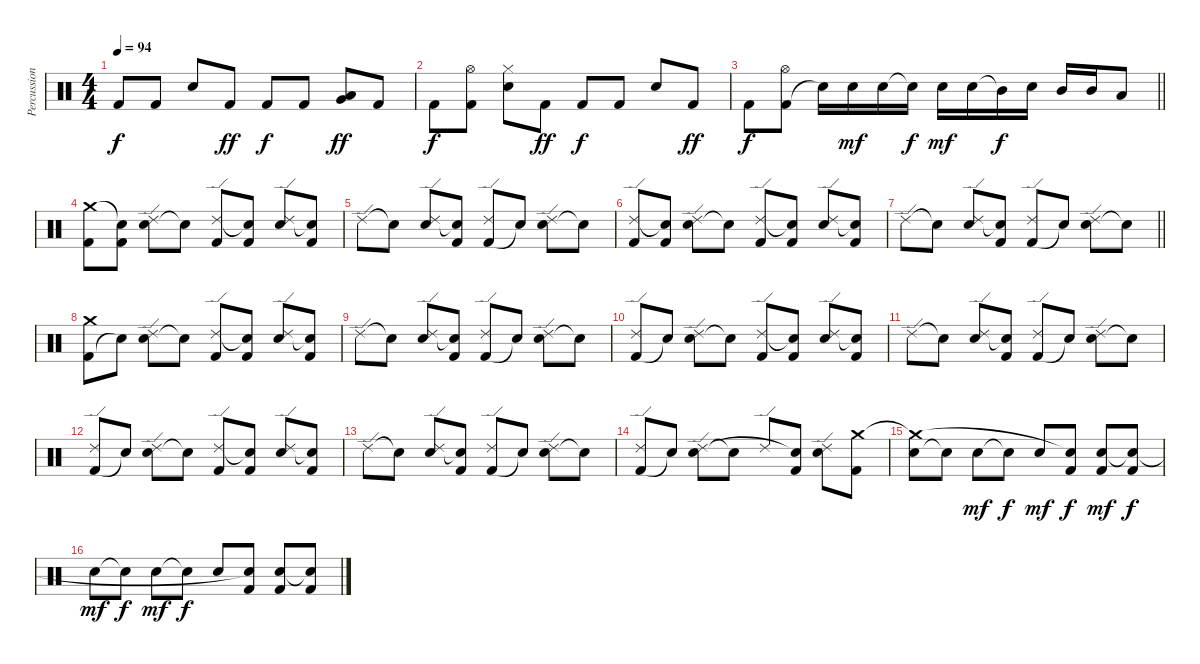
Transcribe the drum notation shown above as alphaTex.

\track ("Percussion" "Percussion") {instrument percussion}
\staff {score}
\articulation defaults
\ts (4 4)
\tempo 94
\clef neutral
\ks c "Kick (hit) 2".8{dy f} "Kick (hit) 2".8 "Electric Snare (hit)".8 "Kick (hit) 2".8{dy ff} "Kick (hit) 2".8{dy f} "Kick (hit) 2".8
("Low Tom (hit)" "Very Low Tom (hit)").8{dy ff} "Kick (hit) 2".8 |
"Kick (hit) 2".8{dy f} ("Kick (hit) 2" "Hi-Hat (open)").8 ("Electric Snare (hit)" "Hi-Hat (closed)").8 "Kick (hit) 2".8{dy ff} "Kick (hit) 2".8{dy f} "Kick (hit) 2".8 "Electric Snare (hit)".8 "Kick (hit) 2".8{dy ff} |
\barLineRight lightlight "Kick (hit) 2".8{dy f}
("Kick (hit) 2" "Hi-Hat (open)").8 "Snare (hit)"{t}.16 "Electric Snare (hit)".16{dy mf} "Electric Snare (hit)".16 "Electric Snare (hit)"{t}.16{dy f} "Electric Snare (hit)".16{dy mf} "Electric Snare (hit)".16 "Mid Tom (hit)"{t}.16{dy f} "Electric Snare (hit)".16 "Mid Tom (hit)".16 "Mid Tom (hit)".16 "Low Tom (hit)".8 |
("Kick (hit) 2" "Crash medium (hit)").8 ("Kick (hit) 2" "Snare (hit)"{t}).8 ("Electric Snare (hit)" "Ride (edge) 2").8 "Snare (hit)"{t}.8 ("Kick (hit) 2" "Ride (edge) 2").8 ("Kick (hit) 2" "Snare (hit)"{t}).8 ("Electric Snare (hit)" "Ride (edge) 2").8 ("Kick (hit) 2" "Snare (hit)"{t}).8 |
"Ride (edge) 2".8 "Snare (hit)"{t}.8 ("Electric Snare (hit)" "Ride (edge) 2").8 ("Kick (hit) 2" "Snare (hit)"{t}).8 ("Kick (hit) 2" "Ride (edge) 2").8 "Snare (hit)"{t}.8 ("Electric Snare (hit)" "Ride (edge) 2").8 "Snare (hit)"{t}.8 |
("Kick (hit) 2" "Ride (edge) 2").8 ("Kick (hit) 2" "Snare (hit)"{t}).8 ("Electric Snare (hit)" "Ride (edge) 2").8 "Snare (hit)"{t}.8 ("Kick (hit) 2" "Ride (edge) 2").8 ("Kick (hit) 2" "Snare (hit)"{t}).8 ("Electric Snare (hit)" "Ride (edge) 2").8 ("Kick (hit) 2" "Snare (hit)"{t}).8 |
\barLineRight lightlight "Ride (edge) 2".8 "Snare (hit)"{t}.8
("Electric Snare (hit)" "Ride (edge) 2").8 ("Kick (hit) 2" "Snare (hit)"{t}).8 ("Kick (hit) 2" "Ride (edge) 2").8 "Snare (hit)"{t}.8 ("Electric Snare (hit)" "Ride (edge) 2").8 "Snare (hit)"{t}.8 |
("Kick (hit) 2" "Crash medium (hit)").8 "Snare (hit)"{t}.8 ("Electric Snare (hit)" "Ride (edge) 2").8 "Snare (hit)"{t}.8 ("Kick (hit) 2" "Ride (edge) 2").8 ("Kick (hit) 2" "Snare (hit)"{t}).8 ("Electric Snare (hit)" "Ride (edge) 2").8 ("Kick (hit) 2" "Snare (hit)"{t}).8 |
"Ride (edge) 2".8 "Snare (hit)"{t}.8 ("Electric Snare (hit)" "Ride (edge) 2").8 ("Kick (hit) 2" "Snare (hit)"{t}).8 ("Kick (hit) 2" "Ride (edge) 2").8 "Snare (hit)"{t}.8 ("Electric Snare (hit)" "Ride (edge) 2").8 "Snare (hit)"{t}.8 |
("Kick (hit) 2" "Ride (edge) 2").8 "Snare (hit)"{t}.8 ("Electric Snare (hit)" "Ride (edge) 2").8 "Snare (hit)"{t}.8 ("Kick (hit) 2" "Ride (edge) 2").8 ("Kick (hit) 2" "Snare (hit)"{t}).8 ("Electric Snare (hit)" "Ride (edge) 2").8 ("Kick (hit) 2" "Snare (hit)"{t}).8 |
"Ride (edge) 2".8 "Snare (hit)"{t}.8 ("Electric Snare (hit)" "Ride (edge) 2").8 ("Kick (hit) 2" "Snare (hit)"{t}).8 ("Kick (hit) 2" "Ride (edge) 2").8 "Snare (hit)"{t}.8 ("Electric Snare (hit)" "Ride (edge) 2").8 "Snare (hit)"{t}.8 |
("Kick (hit) 2" "Ride (edge) 2").8 "Snare (hit)"{t}.8 ("Electric Snare (hit)" "Ride (edge) 2").8 "Snare (hit)"{t}.8 ("Kick (hit) 2" "Ride (edge) 2").8 ("Kick (hit) 2" "Snare (hit)"{t}).8 ("Electric Snare (hit)" "Ride (edge) 2").8 ("Kick (hit) 2" "Snare (hit)"{t}).8 |
"Ride (edge) 2".8 "Snare (hit)"{t}.8 ("Electric Snare (hit)" "Ride (edge) 2").8 ("Kick (hit) 2" "Snare (hit)"{t}).8 ("Kick (hit) 2" "Ride (edge) 2").8 "Snare (hit)"{t}.8 ("Electric Snare (hit)" "Ride (edge) 2").8 "Snare (hit)"{t}.8 |
("Kick (hit) 2" "Ride (edge) 2").8 "Snare (hit)"{t}.8 ("Electric Snare (hit)" "Ride (edge) 2").8 "Snare (hit)"{t}.8 "Ride (edge) 2".8 ("Kick (hit) 2" "Snare (hit)"{t}).8 ("Electric Snare (hit)" "Ride (edge) 2").8 ("Kick (hit) 2" "Crash medium (hit)").8 |
("Electric Snare (hit)" "Crash medium (hit)"{t}).8 "Electric Snare (hit)"{t}.8 "Electric Snare (hit)".8{dy mf} "Electric Snare (hit)"{t}.8{dy f} "Electric Snare (hit)".8{dy mf} ("Kick (hit) 2" "Electric Snare (hit)"{t}).8{dy f} ("Kick (hit) 2" "Electric Snare (hit)").8{dy mf} ("Kick (hit) 2" "Electric Snare (hit)"{t}).8{dy f} |
"Electric Snare (hit)".8{dy mf} "Electric Snare (hit)"{t}.8{dy f} "Electric Snare (hit)".8{dy mf} "Electric Snare (hit)"{t}.8{dy f} "Electric Snare (hit)".8 ("Kick (hit) 2" "Electric Snare (hit)"{t}).8 ("Kick (hit) 2" "Electric Snare (hit)").8 ("Kick (hit) 2" "Electric Snare (hit)"{t}).8
